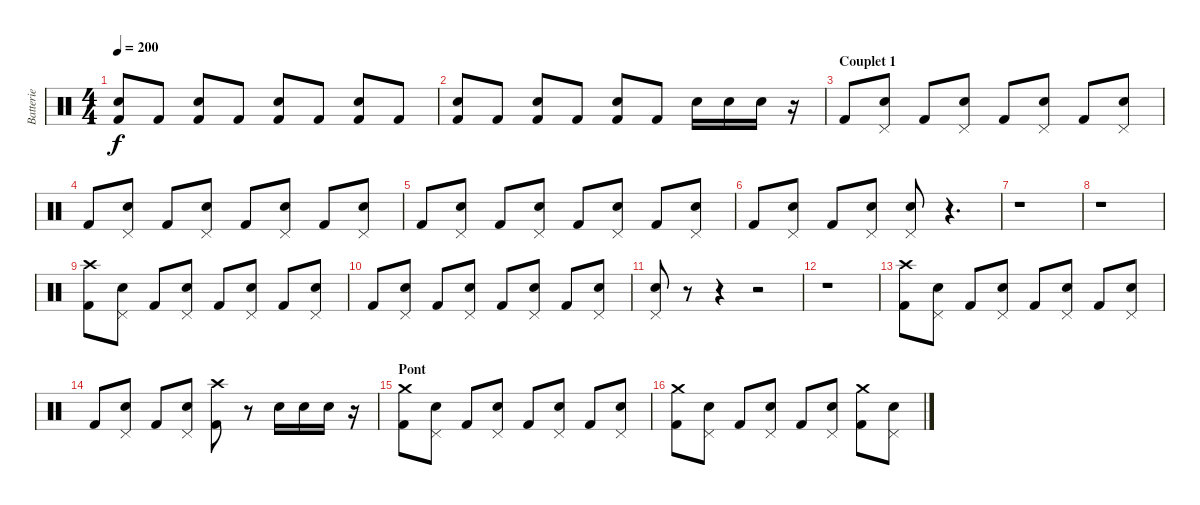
\track ("Batterie" "Batterie") {instrument percussion}
\staff {score}
\articulation defaults
\ts (4 4)
\tempo 200
\clef neutral
\ks c
("Snare (hit) 2" "Kick (hit) 2").8{dy f} "Kick (hit) 2".8 ("Snare (hit) 2" "Kick (hit) 2").8 "Kick (hit) 2".8 ("Snare (hit) 2" "Kick (hit) 2").8 "Kick (hit) 2".8 ("Snare (hit) 2" "Kick (hit) 2").8 "Kick (hit) 2".8 |
("Snare (hit) 2" "Kick (hit) 2").8 "Kick (hit) 2".8 ("Snare (hit) 2" "Kick (hit) 2").8 "Kick (hit) 2".8 ("Snare (hit) 2" "Kick (hit) 2").8 "Kick (hit) 2".8 "Snare (hit) 2".16 "Snare (hit) 2".16 "Snare (hit) 2".16 r.16 |
\section ("" "Couplet 1")
"Kick (hit) 2".8 ("Pedal Hi-Hat (hit)" "Snare (hit) 2").8 "Kick (hit) 2".8 ("Pedal Hi-Hat (hit)" "Snare (hit) 2").8 "Kick (hit) 2".8 ("Pedal Hi-Hat (hit)" "Snare (hit) 2").8 "Kick (hit) 2".8 ("Pedal Hi-Hat (hit)" "Snare (hit) 2").8 |
"Kick (hit) 2".8 ("Pedal Hi-Hat (hit)" "Snare (hit) 2").8 "Kick (hit) 2".8 ("Pedal Hi-Hat (hit)" "Snare (hit) 2").8 "Kick (hit) 2".8 ("Pedal Hi-Hat (hit)" "Snare (hit) 2").8 "Kick (hit) 2".8 ("Pedal Hi-Hat (hit)" "Snare (hit) 2").8 |
"Kick (hit) 2".8 ("Pedal Hi-Hat (hit)" "Snare (hit) 2").8 "Kick (hit) 2".8 ("Pedal Hi-Hat (hit)" "Snare (hit) 2").8 "Kick (hit) 2".8 ("Pedal Hi-Hat (hit)" "Snare (hit) 2").8 "Kick (hit) 2".8 ("Pedal Hi-Hat (hit)" "Snare (hit) 2").8 |
"Kick (hit) 2".8 ("Pedal Hi-Hat (hit)" "Snare (hit) 2").8 "Kick (hit) 2".8 ("Pedal Hi-Hat (hit)" "Snare (hit) 2").8 ("Pedal Hi-Hat (hit)" "Snare (hit) 2").8 r.4{d} |
r.1 |
r.1 |
("Crash high (hit)" "Kick (hit) 2").8 ("Pedal Hi-Hat (hit)" "Snare (hit) 2").8 "Kick (hit) 2".8 ("Pedal Hi-Hat (hit)" "Snare (hit) 2").8 "Kick (hit) 2".8 ("Pedal Hi-Hat (hit)" "Snare (hit) 2").8 "Kick (hit) 2".8 ("Pedal Hi-Hat (hit)" "Snare (hit) 2").8 |
"Kick (hit) 2".8 ("Pedal Hi-Hat (hit)" "Snare (hit) 2").8 "Kick (hit) 2".8 ("Pedal Hi-Hat (hit)" "Snare (hit) 2").8 "Kick (hit) 2".8 ("Pedal Hi-Hat (hit)" "Snare (hit) 2").8 "Kick (hit) 2".8 ("Pedal Hi-Hat (hit)" "Snare (hit) 2").8 |
("Pedal Hi-Hat (hit)" "Snare (hit) 2").8 r.8 r.4 r.2 |
r.1 |
("Crash high (hit)" "Kick (hit) 2").8 ("Pedal Hi-Hat (hit)" "Snare (hit) 2").8 "Kick (hit) 2".8 ("Pedal Hi-Hat (hit)" "Snare (hit) 2").8 "Kick (hit) 2".8 ("Pedal Hi-Hat (hit)" "Snare (hit) 2").8 "Kick (hit) 2".8 ("Pedal Hi-Hat (hit)" "Snare (hit) 2").8 |
"Kick (hit) 2".8 ("Pedal Hi-Hat (hit)" "Snare (hit) 2").8 "Kick (hit) 2".8 ("Pedal Hi-Hat (hit)" "Snare (hit) 2").8 ("Crash high (hit)" "Kick (hit) 2").8 r.8 "Snare (hit) 2".16 "Snare (hit) 2".16 "Snare (hit) 2".16 r.16 |
\section ("" "Pont")
("Crash medium (hit)" "Kick (hit) 2").8 ("Pedal Hi-Hat (hit)" "Snare (hit) 2").8 "Kick (hit) 2".8 ("Pedal Hi-Hat (hit)" "Snare (hit) 2").8 "Kick (hit) 2".8 ("Pedal Hi-Hat (hit)" "Snare (hit) 2").8 "Kick (hit) 2".8 ("Pedal Hi-Hat (hit)" "Snare (hit) 2").8 |
("Crash medium (hit)" "Kick (hit) 2").8 ("Pedal Hi-Hat (hit)" "Snare (hit) 2").8 "Kick (hit) 2".8 ("Pedal Hi-Hat (hit)" "Snare (hit) 2").8 "Kick (hit) 2".8 ("Pedal Hi-Hat (hit)" "Snare (hit) 2").8 ("Crash medium (hit)" "Kick (hit) 2").8 ("Pedal Hi-Hat (hit)" "Snare (hit) 2").8
